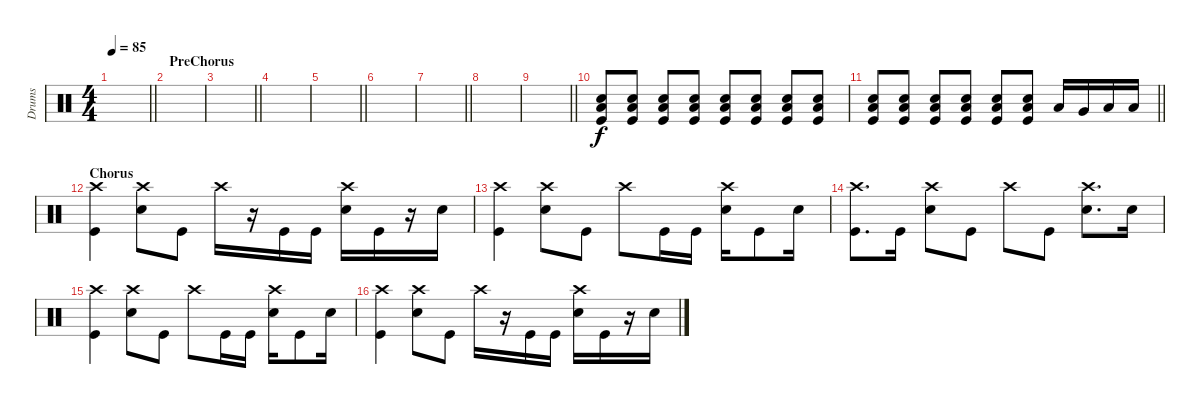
\track ("Drums" "Drums") {instrument percussion}
\staff {score}
\articulation defaults
\ts (4 4)
\tempo 85
\clef neutral
\barLineRight lightlight
\ks c
|
\section ("" "PreChorus")
|
\barLineRight lightlight
|
|
\barLineRight lightlight
|
|
\barLineRight lightlight
|
|
\barLineRight lightlight
|
("Snare (hit) 2" "Low Floor Tom (hit)" "Kick (hit)").8{volume 13} ("Snare (hit) 2" "Low Floor Tom (hit)" "Kick (hit)").8 ("Snare (hit) 2" "Low Floor Tom (hit)" "Kick (hit)").8 ("Snare (hit) 2" "Low Floor Tom (hit)" "Kick (hit)").8 ("Snare (hit) 2" "Low Floor Tom (hit)" "Kick (hit)").8 ("Snare (hit) 2" "Low Floor Tom (hit)" "Kick (hit)").8 ("Snare (hit) 2" "Low Floor Tom (hit)" "Kick (hit)").8 ("Snare (hit) 2" "Low Floor Tom (hit)" "Kick (hit)").8 |
\barLineRight lightlight
("Snare (hit) 2" "Low Floor Tom (hit)" "Kick (hit)").8 ("Snare (hit) 2" "Low Floor Tom (hit)" "Kick (hit)").8 ("Snare (hit) 2" "Low Floor Tom (hit)" "Kick (hit)").8 ("Snare (hit) 2" "Low Floor Tom (hit)" "Kick (hit)").8 ("Snare (hit) 2" "Low Floor Tom (hit)" "Kick (hit)").8 ("Snare (hit) 2" "Low Floor Tom (hit)" "Kick (hit)").8 "Low Tom (hit)".16 "Very Low Tom (hit)".16 "Low Floor Tom (hit)".16 "Low Floor Tom (hit)".16 |
\section ("" "Chorus")
("Crash high (hit)" "Kick (hit)").4 ("Snare (hit) 2" "Crash high (hit)").8 "Kick (hit)".8 "Crash high (hit)".16 r.16 "Kick (hit)".16 "Kick (hit)".16 ("Crash high (hit)" "Snare (hit) 2").16 "Kick (hit)".16 r.16 "Snare (hit) 2".16 |
("Crash high (hit)" "Kick (hit)").4 ("Snare (hit) 2" "Crash high (hit)").8 "Kick (hit)".8 "Crash high (hit)".8 "Kick (hit)".16 "Kick (hit)".16 ("Crash high (hit)" "Snare (hit) 2").16 "Kick (hit)".8 "Snare (hit) 2".16 |
("Crash high (hit)" "Kick (hit)").8{d} "Kick (hit)".16 ("Snare (hit) 2" "Crash high (hit)").8 "Kick (hit)".8 "Crash high (hit)".8 "Kick (hit)".8 ("Snare (hit) 2" "Crash high (hit)").8{d} "Snare (hit) 2".16 |
("Crash high (hit)" "Kick (hit)").4 ("Snare (hit) 2" "Crash high (hit)").8 "Kick (hit)".8 "Crash high (hit)".8 "Kick (hit)".16 "Kick (hit)".16 ("Crash high (hit)" "Snare (hit) 2").16 "Kick (hit)".8 "Snare (hit) 2".16 |
("Crash high (hit)" "Kick (hit)").4 ("Snare (hit) 2" "Crash high (hit)").8 "Kick (hit)".8 "Crash high (hit)".16 r.16 "Kick (hit)".16 "Kick (hit)".16 ("Crash high (hit)" "Snare (hit) 2").16 "Kick (hit)".16 r.16 "Snare (hit) 2".16
